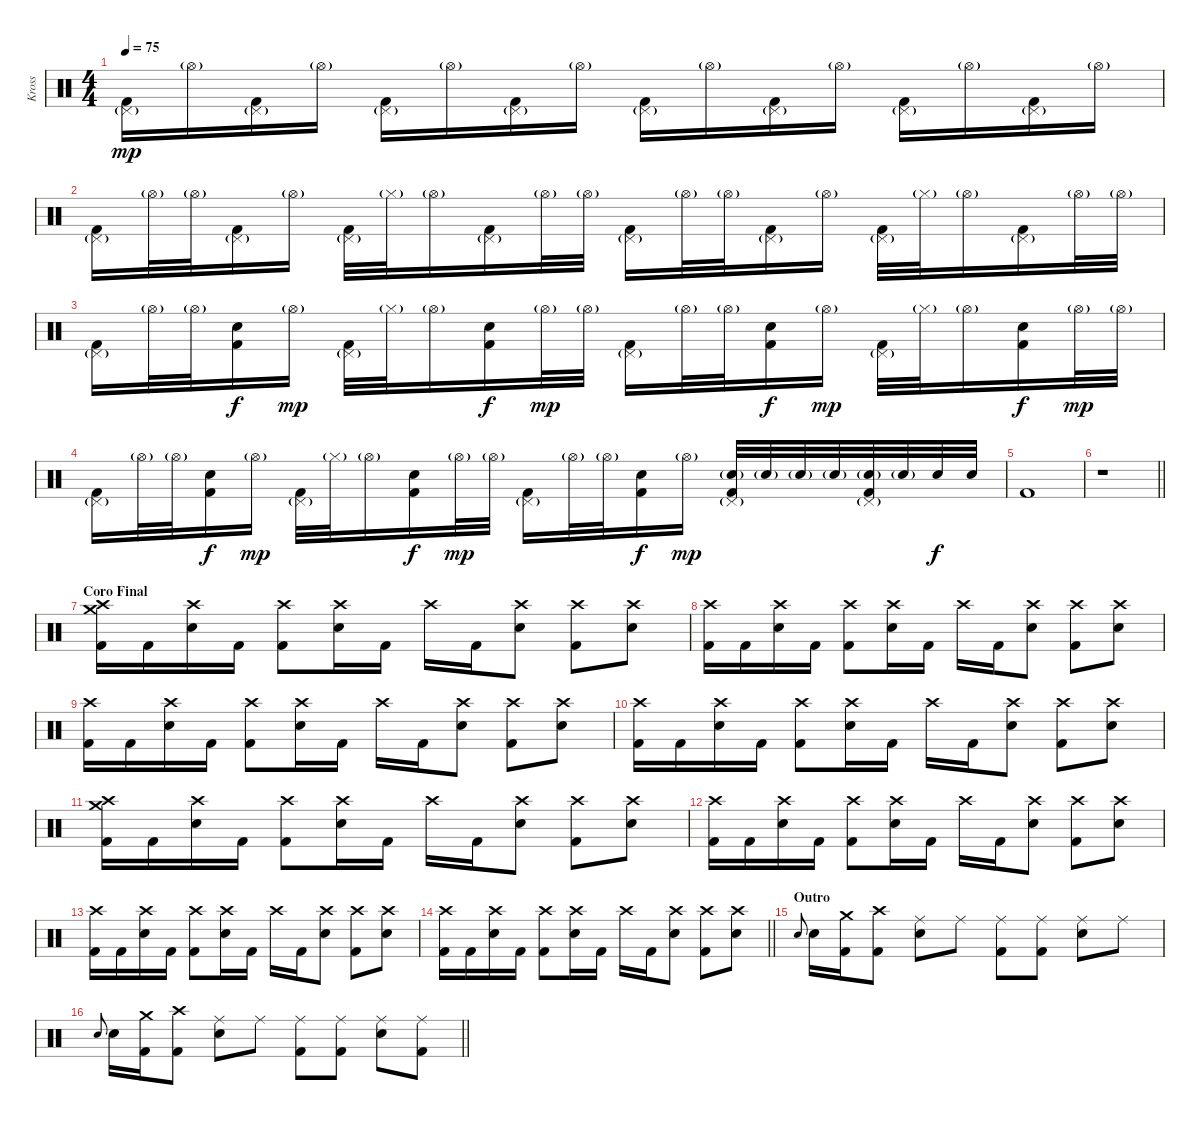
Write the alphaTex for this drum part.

\track ("Kross" "Kross") {instrument percussion}
\staff
\articulation defaults
\ts (4 4)
\tempo 75
\clef neutral
\ks c
("Pedal Hi-Hat (hit)"{g} "Kick (hit) 2").16{dy mp} "Hi-Hat (open)"{g}.16 ("Pedal Hi-Hat (hit)"{g} "Kick (hit) 2").16 "Hi-Hat (open)"{g}.16 ("Pedal Hi-Hat (hit)"{g} "Kick (hit) 2").16 "Hi-Hat (open)"{g}.16 ("Pedal Hi-Hat (hit)"{g} "Kick (hit) 2").16 "Hi-Hat (open)"{g}.16 ("Pedal Hi-Hat (hit)"{g} "Kick (hit) 2").16 "Hi-Hat (open)"{g}.16 ("Pedal Hi-Hat (hit)"{g} "Kick (hit) 2").16 "Hi-Hat (open)"{g}.16 ("Pedal Hi-Hat (hit)"{g} "Kick (hit) 2").16 "Hi-Hat (open)"{g}.16 ("Pedal Hi-Hat (hit)"{g} "Kick (hit) 2").16 "Hi-Hat (open)"{g}.16 |
("Pedal Hi-Hat (hit)"{g} "Kick (hit) 2").16 "Hi-Hat (open)"{g}.32 "Hi-Hat (open)"{g}.32 ("Pedal Hi-Hat (hit)"{g} "Kick (hit) 2").16 "Hi-Hat (open)"{g}.16 ("Pedal Hi-Hat (hit)"{g} "Kick (hit) 2").32 "Hi-Hat (closed)"{g}.32 "Hi-Hat (open)"{g}.16 ("Pedal Hi-Hat (hit)"{g} "Kick (hit) 2").16 "Hi-Hat (open)"{g}.32 "Hi-Hat (open)"{g}.32 ("Pedal Hi-Hat (hit)"{g} "Kick (hit) 2").16 "Hi-Hat (open)"{g}.32 "Hi-Hat (open)"{g}.32 ("Pedal Hi-Hat (hit)"{g} "Kick (hit) 2").16 "Hi-Hat (open)"{g}.16 ("Pedal Hi-Hat (hit)"{g} "Kick (hit) 2").32 "Hi-Hat (closed)"{g}.32 "Hi-Hat (open)"{g}.16 ("Pedal Hi-Hat (hit)"{g} "Kick (hit) 2").16 "Hi-Hat (open)"{g}.32 "Hi-Hat (open)"{g}.32 |
("Pedal Hi-Hat (hit)"{g} "Kick (hit) 2").16 "Hi-Hat (open)"{g}.32 "Hi-Hat (open)"{g}.32 ("Electric Snare (hit)" "Kick (hit) 2").16{dy f} "Hi-Hat (open)"{g}.16{dy mp} ("Pedal Hi-Hat (hit)"{g} "Kick (hit) 2").32 "Hi-Hat (closed)"{g}.32 "Hi-Hat (open)"{g}.16 ("Electric Snare (hit)" "Kick (hit) 2").16{dy f} "Hi-Hat (open)"{g}.32{dy mp} "Hi-Hat (open)"{g}.32 ("Pedal Hi-Hat (hit)"{g} "Kick (hit) 2").16 "Hi-Hat (open)"{g}.32 "Hi-Hat (open)"{g}.32 ("Electric Snare (hit)" "Kick (hit) 2").16{dy f} "Hi-Hat (open)"{g}.16{dy mp} ("Pedal Hi-Hat (hit)"{g} "Kick (hit) 2").32 "Hi-Hat (closed)"{g}.32 "Hi-Hat (open)"{g}.16 ("Electric Snare (hit)" "Kick (hit) 2").16{dy f} "Hi-Hat (open)"{g}.32{dy mp} "Hi-Hat (open)"{g}.32 |
("Pedal Hi-Hat (hit)"{g} "Kick (hit) 2").16 "Hi-Hat (open)"{g}.32 "Hi-Hat (open)"{g}.32 ("Electric Snare (hit)" "Kick (hit) 2").16{dy f} "Hi-Hat (open)"{g}.16{dy mp} ("Pedal Hi-Hat (hit)"{g} "Kick (hit) 2").32 "Hi-Hat (closed)"{g}.32 "Hi-Hat (open)"{g}.16 ("Electric Snare (hit)" "Kick (hit) 2").16{dy f} "Hi-Hat (open)"{g}.32{dy mp} "Hi-Hat (open)"{g}.32 ("Pedal Hi-Hat (hit)"{g} "Kick (hit) 2").16 "Hi-Hat (open)"{g}.32 "Hi-Hat (open)"{g}.32 ("Electric Snare (hit)" "Kick (hit) 2").16{dy f} "Hi-Hat (open)"{g}.16{dy mp} ("Pedal Hi-Hat (hit)"{g} "Electric Snare (hit)"{g} "Kick (hit) 2").32 "Electric Snare (hit)"{g}.32 "Electric Snare (hit)"{g}.32 "Electric Snare (hit)"{g}.32 ("Pedal Hi-Hat (hit)"{g} "Electric Snare (hit)"{g} "Kick (hit) 2").32 "Electric Snare (hit)"{g}.32 "Electric Snare (hit)".32{dy f} "Electric Snare (hit)".32 |
"Kick (hit) 2".1 |
\barLineRight lightlight
r.1 |
\section ("" "Coro Final")
("Crash medium (hit)" "Crash high (hit)" "Kick (hit) 2").16 "Kick (hit) 2".16 ("Crash high (hit)" "Electric Snare (hit)").16 "Kick (hit) 2".16 ("Crash high (hit)" "Kick (hit) 2").8 ("Crash high (hit)" "Electric Snare (hit)").16 "Kick (hit) 2".16 "Crash high (hit)".16 "Kick (hit) 2".16 ("Crash high (hit)" "Electric Snare (hit)").8 ("Crash high (hit)" "Kick (hit) 2").8 ("Crash high (hit)" "Electric Snare (hit)").8 |
("Crash high (hit)" "Kick (hit) 2").16 "Kick (hit) 2".16 ("Crash high (hit)" "Electric Snare (hit)").16 "Kick (hit) 2".16 ("Crash high (hit)" "Kick (hit) 2").8 ("Crash high (hit)" "Electric Snare (hit)").16 "Kick (hit) 2".16 "Crash high (hit)".16 "Kick (hit) 2".16 ("Crash high (hit)" "Electric Snare (hit)").8 ("Crash high (hit)" "Kick (hit) 2").8 ("Crash high (hit)" "Electric Snare (hit)").8 |
("Crash high (hit)" "Kick (hit) 2").16 "Kick (hit) 2".16 ("Crash high (hit)" "Electric Snare (hit)").16 "Kick (hit) 2".16 ("Crash high (hit)" "Kick (hit) 2").8 ("Crash high (hit)" "Electric Snare (hit)").16 "Kick (hit) 2".16 "Crash high (hit)".16 "Kick (hit) 2".16 ("Crash high (hit)" "Electric Snare (hit)").8 ("Crash high (hit)" "Kick (hit) 2").8 ("Crash high (hit)" "Electric Snare (hit)").8 |
("Crash high (hit)" "Kick (hit) 2").16 "Kick (hit) 2".16 ("Crash high (hit)" "Electric Snare (hit)").16 "Kick (hit) 2".16 ("Crash high (hit)" "Kick (hit) 2").8 ("Crash high (hit)" "Electric Snare (hit)").16 "Kick (hit) 2".16 "Crash high (hit)".16 "Kick (hit) 2".16 ("Crash high (hit)" "Electric Snare (hit)").8 ("Crash high (hit)" "Kick (hit) 2").8 ("Crash high (hit)" "Electric Snare (hit)").8 |
("Crash medium (hit)" "Crash high (hit)" "Kick (hit) 2").16 "Kick (hit) 2".16 ("Crash high (hit)" "Electric Snare (hit)").16 "Kick (hit) 2".16 ("Crash high (hit)" "Kick (hit) 2").8 ("Crash high (hit)" "Electric Snare (hit)").16 "Kick (hit) 2".16 "Crash high (hit)".16 "Kick (hit) 2".16 ("Crash high (hit)" "Electric Snare (hit)").8 ("Crash high (hit)" "Kick (hit) 2").8 ("Crash high (hit)" "Electric Snare (hit)").8 |
("Crash high (hit)" "Kick (hit) 2").16 "Kick (hit) 2".16 ("Crash high (hit)" "Electric Snare (hit)").16 "Kick (hit) 2".16 ("Crash high (hit)" "Kick (hit) 2").8 ("Crash high (hit)" "Electric Snare (hit)").16 "Kick (hit) 2".16 "Crash high (hit)".16 "Kick (hit) 2".16 ("Crash high (hit)" "Electric Snare (hit)").8 ("Crash high (hit)" "Kick (hit) 2").8 ("Crash high (hit)" "Electric Snare (hit)").8 |
("Crash high (hit)" "Kick (hit) 2").16 "Kick (hit) 2".16 ("Crash high (hit)" "Electric Snare (hit)").16 "Kick (hit) 2".16 ("Crash high (hit)" "Kick (hit) 2").8 ("Crash high (hit)" "Electric Snare (hit)").16 "Kick (hit) 2".16 "Crash high (hit)".16 "Kick (hit) 2".16 ("Crash high (hit)" "Electric Snare (hit)").8 ("Crash high (hit)" "Kick (hit) 2").8 ("Crash high (hit)" "Electric Snare (hit)").8 |
\barLineRight lightlight
("Crash high (hit)" "Kick (hit) 2").16 "Kick (hit) 2".16 ("Crash high (hit)" "Electric Snare (hit)").16 "Kick (hit) 2".16 ("Crash high (hit)" "Kick (hit) 2").8 ("Crash high (hit)" "Electric Snare (hit)").16 "Kick (hit) 2".16 "Crash high (hit)".16 "Kick (hit) 2".16 ("Crash high (hit)" "Electric Snare (hit)").8 ("Crash high (hit)" "Kick (hit) 2").8 ("Crash high (hit)" "Electric Snare (hit)").8 |
\section ("" "Outro")
"Electric Snare (hit)".8{gr onbeat} "Electric Snare (hit)".16 ("Crash medium (hit)" "Kick (hit) 2").16 ("Crash high (hit)" "Kick (hit) 2").8 ("Ride (middle)" "Electric Snare (hit)").8 "Ride (middle)".8 ("Ride (middle)" "Kick (hit) 2").8 ("Ride (middle)" "Kick (hit) 2").8 ("Ride (middle)" "Electric Snare (hit)").8 "Ride (middle)".8 |
\barLineRight lightlight "Electric Snare (hit)".8{gr onbeat} "Electric Snare (hit)".16
("Crash medium (hit)" "Kick (hit) 2").16 ("Crash high (hit)" "Kick (hit) 2").8 ("Ride (middle)" "Electric Snare (hit)").8 "Ride (middle)".8 ("Ride (middle)" "Kick (hit) 2").8 ("Ride (middle)" "Kick (hit) 2").8 ("Ride (middle)" "Electric Snare (hit)").8 ("Ride (middle)" "Kick (hit) 2").8
